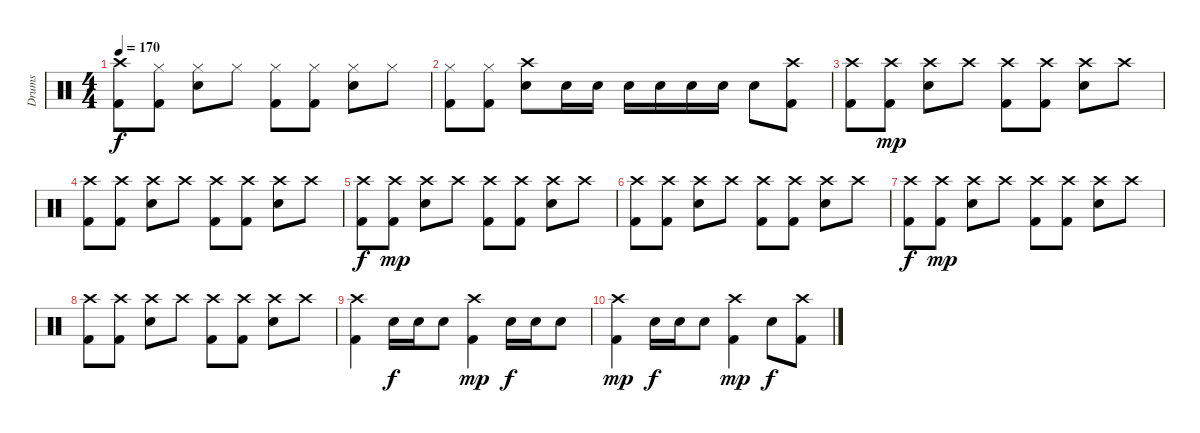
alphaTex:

\track ("Drums" "Drums") {instrument percussion}
\staff {score}
\articulation defaults
\ts (4 4)
\tempo 170
\clef neutral
\ks c
("Crash high (hit)" "Kick (hit) 2").8{dy f volume 11} ("Hi-Hat (closed)" "Kick (hit) 2").8 ("Hi-Hat (closed)" "Electric Snare (hit)").8 "Hi-Hat (closed)".8 ("Hi-Hat (closed)" "Kick (hit) 2").8 ("Hi-Hat (closed)" "Kick (hit) 2").8 ("Hi-Hat (closed)" "Electric Snare (hit)").8 "Hi-Hat (closed)".8 |
("Hi-Hat (closed)" "Kick (hit) 2").8 ("Hi-Hat (closed)" "Kick (hit) 2").8 ("Crash high (hit)" "Electric Snare (hit)").8 "Electric Snare (hit)".16 "Electric Snare (hit)".16 "Electric Snare (hit)".16 "Electric Snare (hit)".16 "Electric Snare (hit)".16 "Electric Snare (hit)".16 "Electric Snare (hit)".8 ("Crash high (hit)" "Kick (hit) 2").8 |
("Crash high (hit)" "Kick (hit) 2").8{volume 10} ("Crash high (hit)" "Kick (hit) 2").8{dy mp} ("Crash high (hit)" "Electric Snare (hit)").8 "Crash high (hit)".8 ("Crash high (hit)" "Kick (hit) 2").8 ("Crash high (hit)" "Kick (hit) 2").8 ("Crash high (hit)" "Electric Snare (hit)").8 "Crash high (hit)".8 |
("Crash high (hit)" "Kick (hit) 2").8{volume 9} ("Crash high (hit)" "Kick (hit) 2").8 ("Crash high (hit)" "Electric Snare (hit)").8 "Crash high (hit)".8 ("Crash high (hit)" "Kick (hit) 2").8 ("Crash high (hit)" "Kick (hit) 2").8 ("Crash high (hit)" "Electric Snare (hit)").8 "Crash high (hit)".8 |
("Crash high (hit)" "Kick (hit) 2").8{dy f volume 8} ("Crash high (hit)" "Kick (hit) 2").8{dy mp} ("Crash high (hit)" "Electric Snare (hit)").8 "Crash high (hit)".8 ("Crash high (hit)" "Kick (hit) 2").8 ("Crash high (hit)" "Kick (hit) 2").8 ("Crash high (hit)" "Electric Snare (hit)").8 "Crash high (hit)".8 |
("Crash high (hit)" "Kick (hit) 2").8{volume 7} ("Crash high (hit)" "Kick (hit) 2").8 ("Crash high (hit)" "Electric Snare (hit)").8 "Crash high (hit)".8 ("Crash high (hit)" "Kick (hit) 2").8 ("Crash high (hit)" "Kick (hit) 2").8 ("Crash high (hit)" "Electric Snare (hit)").8 "Crash high (hit)".8 |
("Crash high (hit)" "Kick (hit) 2").8{dy f volume 6} ("Crash high (hit)" "Kick (hit) 2").8{dy mp} ("Crash high (hit)" "Electric Snare (hit)").8 "Crash high (hit)".8 ("Crash high (hit)" "Kick (hit) 2").8 ("Crash high (hit)" "Kick (hit) 2").8 ("Crash high (hit)" "Electric Snare (hit)").8 "Crash high (hit)".8 |
("Crash high (hit)" "Kick (hit) 2").8{volume 5} ("Crash high (hit)" "Kick (hit) 2").8 ("Crash high (hit)" "Electric Snare (hit)").8 "Crash high (hit)".8 ("Crash high (hit)" "Kick (hit) 2").8 ("Crash high (hit)" "Kick (hit) 2").8 ("Crash high (hit)" "Electric Snare (hit)").8 "Crash high (hit)".8 |
("Crash high (hit)" "Kick (hit) 2").4{volume 4} "Electric Snare (hit)".16{dy f} "Electric Snare (hit)".16 "Electric Snare (hit)".8 ("Crash high (hit)" "Kick (hit) 2").4{dy mp} "Electric Snare (hit)".16{dy f} "Electric Snare (hit)".16 "Electric Snare (hit)".8 |
("Crash high (hit)" "Kick (hit) 2").4{dy mp volume 3} "Electric Snare (hit)".16{dy f} "Electric Snare (hit)".16 "Electric Snare (hit)".8 ("Crash high (hit)" "Kick (hit) 2").4{dy mp volume 2} "Electric Snare (hit)".8{dy f} ("Crash high (hit)" "Kick (hit) 2").8
